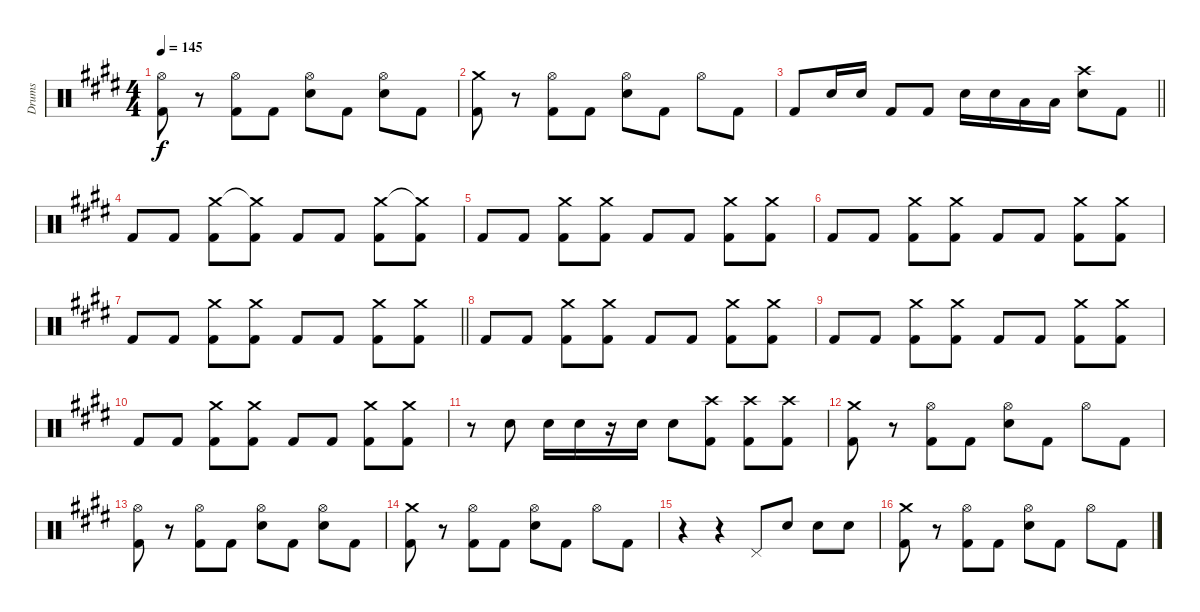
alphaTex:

\track ("Drums" "Drums") {instrument percussion}
\staff {score}
\articulation defaults
\ts (4 4)
\tempo 145
\clef neutral
\ks e
("Hi-Hat (open)" "Kick (hit) 2").8{dy f} r.8 ("Hi-Hat (open)" "Kick (hit) 2").8 "Kick (hit) 2".8 ("Hi-Hat (open)" "Electric Snare (hit)").8 "Kick (hit) 2".8 ("Hi-Hat (open)" "Electric Snare (hit)").8 "Kick (hit) 2".8 |
("Crash medium (hit)" "Kick (hit) 2").8 r.8 ("Hi-Hat (open)" "Kick (hit) 2").8 "Kick (hit) 2".8 ("Hi-Hat (open)" "Electric Snare (hit)").8 "Kick (hit) 2".8 "Hi-Hat (open)".8 "Kick (hit) 2".8 |
\barLineRight lightlight "Kick (hit) 2".8 "Electric Snare (hit)".16 "Electric Snare (hit)".16 "Kick (hit) 2".8 "Kick (hit) 2".8 "Electric Snare (hit)".16 "Electric Snare (hit)".16 "Low Tom (hit)".16 "Low Tom (hit)".16
("Crash high (hit)" "Electric Snare (hit)").8 "Kick (hit) 2".8 |
"Kick (hit) 2".8 "Kick (hit) 2".8 ("Crash medium (hit)" "Kick (hit) 2").8 ("Crash medium (hit)"{t} "Kick (hit) 2").8 "Kick (hit) 2".8 "Kick (hit) 2".8 ("Crash medium (hit)" "Kick (hit) 2").8 ("Crash medium (hit)"{t} "Kick (hit) 2").8 |
"Kick (hit) 2".8 "Kick (hit) 2".8 ("Crash medium (hit)" "Kick (hit) 2").8 ("Crash medium (hit)" "Kick (hit) 2").8 "Kick (hit) 2".8 "Kick (hit) 2".8 ("Crash medium (hit)" "Kick (hit) 2").8 ("Crash medium (hit)" "Kick (hit) 2").8 |
"Kick (hit) 2".8 "Kick (hit) 2".8 ("Crash medium (hit)" "Kick (hit) 2").8 ("Crash medium (hit)" "Kick (hit) 2").8 "Kick (hit) 2".8 "Kick (hit) 2".8 ("Crash medium (hit)" "Kick (hit) 2").8 ("Crash medium (hit)" "Kick (hit) 2").8 |
\barLineRight lightlight "Kick (hit) 2".8 "Kick (hit) 2".8
("Crash medium (hit)" "Kick (hit) 2").8 ("Crash medium (hit)" "Kick (hit) 2").8 "Kick (hit) 2".8 "Kick (hit) 2".8 ("Crash medium (hit)" "Kick (hit) 2").8 ("Crash medium (hit)" "Kick (hit) 2").8 |
"Kick (hit) 2".8 "Kick (hit) 2".8 ("Crash medium (hit)" "Kick (hit) 2").8 ("Crash medium (hit)" "Kick (hit) 2").8 "Kick (hit) 2".8 "Kick (hit) 2".8 ("Crash medium (hit)" "Kick (hit) 2").8 ("Crash medium (hit)" "Kick (hit) 2").8 |
"Kick (hit) 2".8 "Kick (hit) 2".8 ("Crash medium (hit)" "Kick (hit) 2").8 ("Crash medium (hit)" "Kick (hit) 2").8 "Kick (hit) 2".8 "Kick (hit) 2".8 ("Crash medium (hit)" "Kick (hit) 2").8 ("Crash medium (hit)" "Kick (hit) 2").8 |
"Kick (hit) 2".8 "Kick (hit) 2".8 ("Crash medium (hit)" "Kick (hit) 2").8 ("Crash medium (hit)" "Kick (hit) 2").8 "Kick (hit) 2".8 "Kick (hit) 2".8 ("Crash medium (hit)" "Kick (hit) 2").8 ("Crash medium (hit)" "Kick (hit) 2").8 |
r.8 "Electric Snare (hit)".8 "Electric Snare (hit)".16 "Electric Snare (hit)".16 r.16 "Electric Snare (hit)".16 "Electric Snare (hit)".8 ("Crash high (hit)" "Kick (hit) 2").8 ("Crash high (hit)" "Kick (hit) 2").8 ("Crash high (hit)" "Kick (hit) 2").8 |
("Crash medium (hit)" "Kick (hit) 2").8 r.8 ("Hi-Hat (open)" "Kick (hit) 2").8 "Kick (hit) 2".8 ("Hi-Hat (open)" "Electric Snare (hit)").8 "Kick (hit) 2".8 "Hi-Hat (open)".8 "Kick (hit) 2".8 |
("Hi-Hat (open)" "Kick (hit) 2").8 r.8 ("Hi-Hat (open)" "Kick (hit) 2").8 "Kick (hit) 2".8 ("Hi-Hat (open)" "Electric Snare (hit)").8 "Kick (hit) 2".8 ("Hi-Hat (open)" "Electric Snare (hit)").8 "Kick (hit) 2".8 |
("Crash medium (hit)" "Kick (hit) 2").8 r.8 ("Hi-Hat (open)" "Kick (hit) 2").8 "Kick (hit) 2".8 ("Hi-Hat (open)" "Electric Snare (hit)").8 "Kick (hit) 2".8 "Hi-Hat (open)".8 "Kick (hit) 2".8 |
r.4 r.4 "Pedal Hi-Hat (hit)".8 "Electric Snare (hit)".8 "Electric Snare (hit)".8 "Electric Snare (hit)".8 |
("Crash medium (hit)" "Kick (hit) 2").8 r.8 ("Hi-Hat (open)" "Kick (hit) 2").8 "Kick (hit) 2".8 ("Hi-Hat (open)" "Electric Snare (hit)").8 "Kick (hit) 2".8 "Hi-Hat (open)".8 "Kick (hit) 2".8
